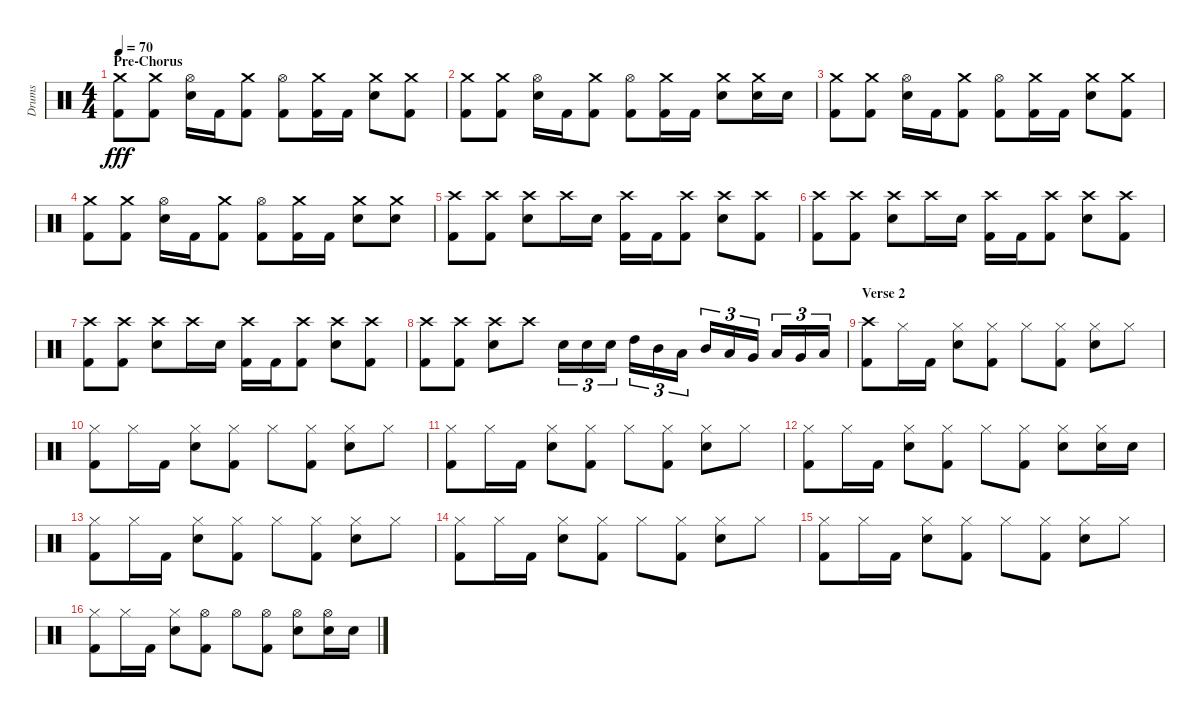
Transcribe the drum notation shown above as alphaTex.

\track ("Drums" "Drums") {instrument percussion}
\staff {score}
\articulation defaults
\ts (4 4)
\section ("" "Pre-Chorus")
\tempo 70
\clef neutral
\ks c
("Crash medium (hit)" "Kick (hit) 2").8{dy fff} ("Crash medium (hit)" "Kick (hit) 2").8 ("Hi-Hat (open)" "Electric Snare (hit)").16 "Kick (hit) 2".16 ("Crash medium (hit)" "Kick (hit) 2").8 ("Hi-Hat (open)" "Kick (hit) 2").8 ("Crash medium (hit)" "Kick (hit) 2").16 "Kick (hit) 2".16 ("Crash medium (hit)" "Electric Snare (hit)").8 ("Crash medium (hit)" "Kick (hit) 2").8 |
("Crash medium (hit)" "Kick (hit) 2").8 ("Crash medium (hit)" "Kick (hit) 2").8 ("Hi-Hat (open)" "Electric Snare (hit)").16 "Kick (hit) 2".16 ("Crash medium (hit)" "Kick (hit) 2").8 ("Hi-Hat (open)" "Kick (hit) 2").8 ("Crash medium (hit)" "Kick (hit) 2").16 "Kick (hit) 2".16 ("Crash medium (hit)" "Electric Snare (hit)").8 ("Crash medium (hit)" "Electric Snare (hit)").16 "Electric Snare (hit)".16 |
("Crash medium (hit)" "Kick (hit) 2").8 ("Crash medium (hit)" "Kick (hit) 2").8 ("Hi-Hat (open)" "Electric Snare (hit)").16 "Kick (hit) 2".16 ("Crash medium (hit)" "Kick (hit) 2").8 ("Hi-Hat (open)" "Kick (hit) 2").8 ("Crash medium (hit)" "Kick (hit) 2").16 "Kick (hit) 2".16 ("Crash medium (hit)" "Electric Snare (hit)").8 ("Crash medium (hit)" "Kick (hit) 2").8 |
("Crash medium (hit)" "Kick (hit) 2").8 ("Crash medium (hit)" "Kick (hit) 2").8 ("Hi-Hat (open)" "Electric Snare (hit)").16 "Kick (hit) 2".16 ("Crash medium (hit)" "Kick (hit) 2").8 ("Hi-Hat (open)" "Kick (hit) 2").8 ("Crash medium (hit)" "Kick (hit) 2").16 "Kick (hit) 2".16 ("Crash medium (hit)" "Electric Snare (hit)").8 ("Crash medium (hit)" "Electric Snare (hit)").8 |
("Crash high (hit)" "Kick (hit) 2").8 ("Crash high (hit)" "Kick (hit) 2").8 ("Crash high (hit)" "Electric Snare (hit)").8 "Crash high (hit)".16 "Electric Snare (hit)".16 ("Crash high (hit)" "Kick (hit) 2").16 "Kick (hit) 2".16 ("Crash high (hit)" "Kick (hit) 2").8 ("Crash high (hit)" "Electric Snare (hit)").8 ("Crash high (hit)" "Kick (hit) 2").8 |
("Crash high (hit)" "Kick (hit) 2").8 ("Crash high (hit)" "Kick (hit) 2").8 ("Crash high (hit)" "Electric Snare (hit)").8 "Crash high (hit)".16 "Electric Snare (hit)".16 ("Crash high (hit)" "Kick (hit) 2").16 "Kick (hit) 2".16 ("Crash high (hit)" "Kick (hit) 2").8 ("Crash high (hit)" "Electric Snare (hit)").8 ("Crash high (hit)" "Kick (hit) 2").8 |
("Crash high (hit)" "Kick (hit) 2").8 ("Crash high (hit)" "Kick (hit) 2").8 ("Crash high (hit)" "Electric Snare (hit)").8 "Crash high (hit)".16 "Electric Snare (hit)".16 ("Crash high (hit)" "Kick (hit) 2").16 "Kick (hit) 2".16 ("Crash high (hit)" "Kick (hit) 2").8 ("Crash high (hit)" "Electric Snare (hit)").8 ("Crash high (hit)" "Kick (hit) 2").8 |
("Crash high (hit)" "Kick (hit) 2").8 ("Crash high (hit)" "Kick (hit) 2").8 ("Crash high (hit)" "Electric Snare (hit)").8 "Crash high (hit)".8 "Electric Snare (hit)".16{tu (3 2)} "Electric Snare (hit)".16{tu (3 2)} "Electric Snare (hit)".16{tu (3 2)} "High Tom (hit)".16{tu (3 2)} "Mid Tom (hit)".16{tu (3 2)} "Low Tom (hit)".16{tu (3 2)} "Mid Tom (hit)".16{tu (3 2)} "Low Tom (hit)".16{tu (3 2)} "Very Low Tom (hit)".16{tu (3 2)} "Low Floor Tom (hit)".16{tu (3 2)} "Very Low Tom (hit)".16{tu (3 2)} "Low Tom (hit)".16{tu (3 2)} |
\section ("" "Verse 2")
("Crash high (hit)" "Kick (hit) 2").8 "Hi-Hat (closed)".16 "Kick (hit) 2".16 ("Hi-Hat (closed)" "Electric Snare (hit)").8 ("Hi-Hat (closed)" "Kick (hit) 2").8 "Hi-Hat (closed)".8 ("Hi-Hat (closed)" "Kick (hit) 2").8 ("Hi-Hat (closed)" "Electric Snare (hit)").8 "Hi-Hat (closed)".8 |
("Hi-Hat (closed)" "Kick (hit) 2").8 "Hi-Hat (closed)".16 "Kick (hit) 2".16 ("Hi-Hat (closed)" "Electric Snare (hit)").8 ("Hi-Hat (closed)" "Kick (hit) 2").8 "Hi-Hat (closed)".8 ("Hi-Hat (closed)" "Kick (hit) 2").8 ("Hi-Hat (closed)" "Electric Snare (hit)").8 "Hi-Hat (closed)".8 |
("Hi-Hat (closed)" "Kick (hit) 2").8 "Hi-Hat (closed)".16 "Kick (hit) 2".16 ("Hi-Hat (closed)" "Electric Snare (hit)").8 ("Hi-Hat (closed)" "Kick (hit) 2").8 "Hi-Hat (closed)".8 ("Hi-Hat (closed)" "Kick (hit) 2").8 ("Hi-Hat (closed)" "Electric Snare (hit)").8 "Hi-Hat (closed)".8 |
("Hi-Hat (closed)" "Kick (hit) 2").8 "Hi-Hat (closed)".16 "Kick (hit) 2".16 ("Hi-Hat (closed)" "Electric Snare (hit)").8 ("Hi-Hat (closed)" "Kick (hit) 2").8 "Hi-Hat (closed)".8 ("Hi-Hat (closed)" "Kick (hit) 2").8 ("Hi-Hat (closed)" "Electric Snare (hit)").8 ("Hi-Hat (closed)" "Electric Snare (hit)").16 "Electric Snare (hit)".16 |
("Hi-Hat (closed)" "Kick (hit) 2").8 "Hi-Hat (closed)".16 "Kick (hit) 2".16 ("Hi-Hat (closed)" "Electric Snare (hit)").8 ("Hi-Hat (closed)" "Kick (hit) 2").8 "Hi-Hat (closed)".8 ("Hi-Hat (closed)" "Kick (hit) 2").8 ("Hi-Hat (closed)" "Electric Snare (hit)").8 "Hi-Hat (closed)".8 |
("Hi-Hat (closed)" "Kick (hit) 2").8 "Hi-Hat (closed)".16 "Kick (hit) 2".16 ("Hi-Hat (closed)" "Electric Snare (hit)").8 ("Hi-Hat (closed)" "Kick (hit) 2").8 "Hi-Hat (closed)".8 ("Hi-Hat (closed)" "Kick (hit) 2").8 ("Hi-Hat (closed)" "Electric Snare (hit)").8 "Hi-Hat (closed)".8 |
("Hi-Hat (closed)" "Kick (hit) 2").8 "Hi-Hat (closed)".16 "Kick (hit) 2".16 ("Hi-Hat (closed)" "Electric Snare (hit)").8 ("Hi-Hat (closed)" "Kick (hit) 2").8 "Hi-Hat (closed)".8 ("Hi-Hat (closed)" "Kick (hit) 2").8 ("Hi-Hat (closed)" "Electric Snare (hit)").8 "Hi-Hat (closed)".8 |
("Hi-Hat (closed)" "Kick (hit) 2").8 "Hi-Hat (closed)".16 "Kick (hit) 2".16 ("Hi-Hat (closed)" "Electric Snare (hit)").8 ("Hi-Hat (open)" "Kick (hit) 2").8 "Hi-Hat (open)".8 ("Hi-Hat (open)" "Kick (hit) 2").8 ("Hi-Hat (open)" "Electric Snare (hit)").8 ("Hi-Hat (open)" "Electric Snare (hit)").16 "Electric Snare (hit)".16
